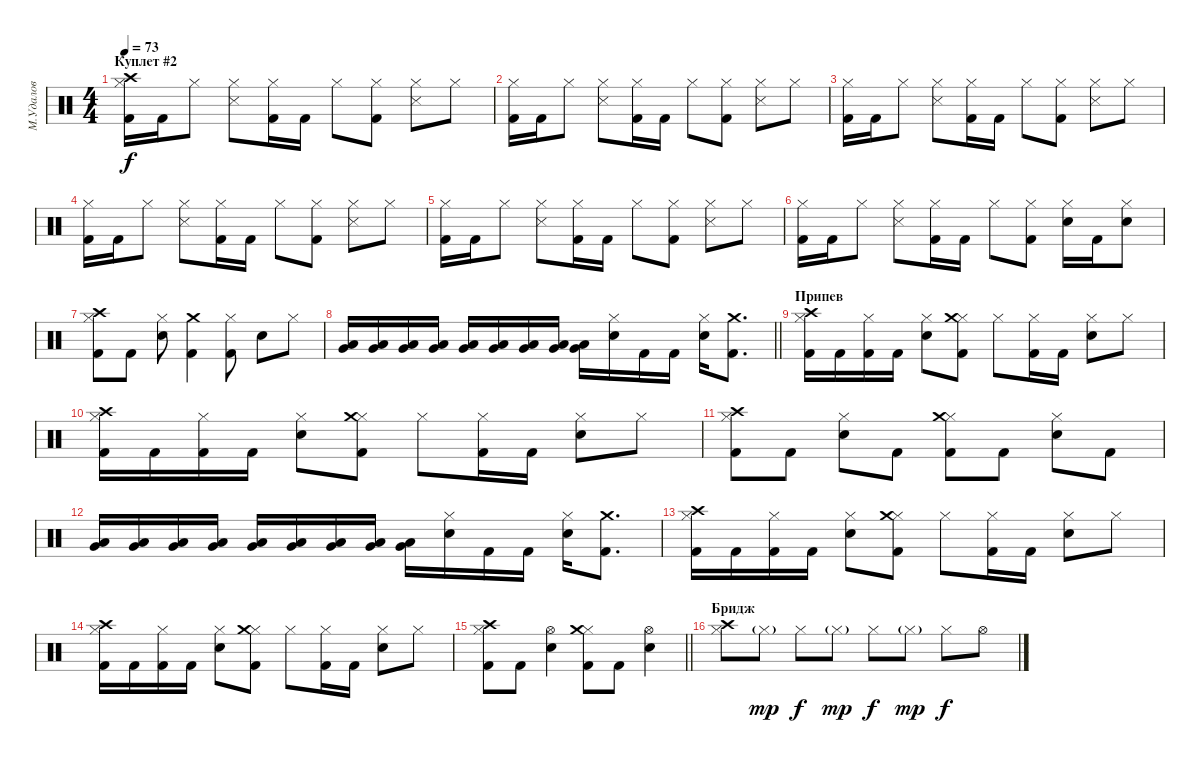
\track ("М.Удалов" "М.Удалов") {instrument percussion}
\staff {score}
\articulation defaults
\ts (4 4)
\section ("" "Куплет #2")
\tempo 73
\clef neutral
\ks c
("Kick (hit) 2" "Hi-Hat (closed)" "Crash high (hit)").16{dy f} "Kick (hit) 2".16 "Hi-Hat (closed)".8 ("Snare (side stick) 3" "Hi-Hat (closed)").8 ("Kick (hit) 2" "Hi-Hat (closed)").16 "Kick (hit) 2".16 "Hi-Hat (closed)".8 ("Kick (hit) 2" "Hi-Hat (closed)").8 ("Snare (side stick) 3" "Hi-Hat (closed)").8 "Hi-Hat (closed)".8 |
("Kick (hit) 2" "Hi-Hat (closed)").16 "Kick (hit) 2".16 "Hi-Hat (closed)".8 ("Snare (side stick) 3" "Hi-Hat (closed)").8 ("Kick (hit) 2" "Hi-Hat (closed)").16 "Kick (hit) 2".16 "Hi-Hat (closed)".8 ("Kick (hit) 2" "Hi-Hat (closed)").8 ("Snare (side stick) 3" "Hi-Hat (closed)").8 "Hi-Hat (closed)".8 |
("Kick (hit) 2" "Hi-Hat (closed)").16 "Kick (hit) 2".16 "Hi-Hat (closed)".8 ("Snare (side stick) 3" "Hi-Hat (closed)").8 ("Kick (hit) 2" "Hi-Hat (closed)").16 "Kick (hit) 2".16 "Hi-Hat (closed)".8 ("Kick (hit) 2" "Hi-Hat (closed)").8 ("Snare (side stick) 3" "Hi-Hat (closed)").8 "Hi-Hat (closed)".8 |
("Kick (hit) 2" "Hi-Hat (closed)").16 "Kick (hit) 2".16 "Hi-Hat (closed)".8 ("Snare (side stick) 3" "Hi-Hat (closed)").8 ("Kick (hit) 2" "Hi-Hat (closed)").16 "Kick (hit) 2".16 "Hi-Hat (closed)".8 ("Kick (hit) 2" "Hi-Hat (closed)").8 ("Snare (side stick) 3" "Hi-Hat (closed)").8 "Hi-Hat (closed)".8 |
("Kick (hit) 2" "Hi-Hat (closed)").16 "Kick (hit) 2".16 "Hi-Hat (closed)".8 ("Snare (side stick) 3" "Hi-Hat (closed)").8 ("Kick (hit) 2" "Hi-Hat (closed)").16 "Kick (hit) 2".16 "Hi-Hat (closed)".8 ("Kick (hit) 2" "Hi-Hat (closed)").8 ("Snare (side stick) 3" "Hi-Hat (closed)").8 "Hi-Hat (closed)".8 |
("Kick (hit) 2" "Hi-Hat (closed)").16 "Kick (hit) 2".16 "Hi-Hat (closed)".8 ("Snare (side stick) 3" "Hi-Hat (closed)").8 ("Kick (hit) 2" "Hi-Hat (closed)").16 "Kick (hit) 2".16 "Hi-Hat (closed)".8 ("Kick (hit) 2" "Hi-Hat (closed)").8 ("Snare (hit) 2" "Hi-Hat (closed)").16 "Kick (hit) 2".16 ("Snare (hit) 2" "Hi-Hat (closed)").8 |
("Kick (hit) 2" "Hi-Hat (closed)" "Crash high (hit)").8 "Kick (hit) 2".8 ("Snare (hit) 2" "Hi-Hat (closed)").8 ("Kick (hit) 2" "Crash medium (hit)").4 ("Kick (hit) 2" "Hi-Hat (closed)").8 "Snare (hit) 2".8 "Hi-Hat (closed)".8 |
\barLineRight lightlight
("Very Low Tom (hit)" "Low Tom (hit)").16 ("Very Low Tom (hit)" "Low Tom (hit)").16 ("Very Low Tom (hit)" "Low Tom (hit)").16 ("Very Low Tom (hit)" "Low Tom (hit)").16 ("Very Low Tom (hit)" "Low Tom (hit)").16 ("Very Low Tom (hit)" "Low Tom (hit)").16 ("Very Low Tom (hit)" "Low Tom (hit)").16 ("Very Low Tom (hit)" "Low Tom (hit)").16 ("Very Low Tom (hit)" "Low Tom (hit)").16 ("Snare (hit) 2" "Hi-Hat (closed)").16 "Kick (hit) 2".16 "Kick (hit) 2".16 ("Snare (hit) 2" "Hi-Hat (closed)").16 ("Kick (hit) 2" "Crash medium (hit)").8{d} |
\section ("" "Припев")
("Kick (hit) 2" "Hi-Hat (closed)" "Crash high (hit)").16 "Kick (hit) 2".16 ("Kick (hit) 2" "Hi-Hat (closed)").16 "Kick (hit) 2".16 ("Snare (hit) 2" "Hi-Hat (closed)").8 ("Kick (hit) 2" "Hi-Hat (closed)" "Crash medium (hit)").8 "Hi-Hat (closed)".8 ("Kick (hit) 2" "Hi-Hat (closed)").16 "Kick (hit) 2".16 ("Snare (hit) 2" "Hi-Hat (closed)").8 "Hi-Hat (closed)".8 |
("Kick (hit) 2" "Hi-Hat (closed)" "Crash high (hit)").16 "Kick (hit) 2".16 ("Kick (hit) 2" "Hi-Hat (closed)").16 "Kick (hit) 2".16 ("Snare (hit) 2" "Hi-Hat (closed)").8 ("Kick (hit) 2" "Hi-Hat (closed)" "Crash medium (hit)").8 "Hi-Hat (closed)".8 ("Kick (hit) 2" "Hi-Hat (closed)").16 "Kick (hit) 2".16 ("Snare (hit) 2" "Hi-Hat (closed)").8 "Hi-Hat (closed)".8 |
("Kick (hit) 2" "Hi-Hat (closed)" "Crash high (hit)").8 "Kick (hit) 2".8 ("Snare (hit) 2" "Hi-Hat (closed)").8 "Kick (hit) 2".8 ("Kick (hit) 2" "Hi-Hat (closed)" "Crash medium (hit)").8 "Kick (hit) 2".8 ("Snare (hit) 2" "Hi-Hat (closed)").8 "Kick (hit) 2".8 |
("Very Low Tom (hit)" "Low Tom (hit)").16 ("Very Low Tom (hit)" "Low Tom (hit)").16 ("Very Low Tom (hit)" "Low Tom (hit)").16 ("Very Low Tom (hit)" "Low Tom (hit)").16 ("Very Low Tom (hit)" "Low Tom (hit)").16 ("Very Low Tom (hit)" "Low Tom (hit)").16 ("Very Low Tom (hit)" "Low Tom (hit)").16 ("Very Low Tom (hit)" "Low Tom (hit)").16 ("Very Low Tom (hit)" "Low Tom (hit)").16 ("Snare (hit) 2" "Hi-Hat (closed)").16 "Kick (hit) 2".16 "Kick (hit) 2".16 ("Snare (hit) 2" "Hi-Hat (closed)").16 ("Kick (hit) 2" "Crash medium (hit)").8{d} |
("Kick (hit) 2" "Hi-Hat (closed)" "Crash high (hit)").16 "Kick (hit) 2".16 ("Kick (hit) 2" "Hi-Hat (closed)").16 "Kick (hit) 2".16 ("Snare (hit) 2" "Hi-Hat (closed)").8 ("Kick (hit) 2" "Hi-Hat (closed)" "Crash medium (hit)").8 "Hi-Hat (closed)".8 ("Kick (hit) 2" "Hi-Hat (closed)").16 "Kick (hit) 2".16 ("Snare (hit) 2" "Hi-Hat (closed)").8 "Hi-Hat (closed)".8 |
("Kick (hit) 2" "Hi-Hat (closed)" "Crash high (hit)").16 "Kick (hit) 2".16 ("Kick (hit) 2" "Hi-Hat (closed)").16 "Kick (hit) 2".16 ("Snare (hit) 2" "Hi-Hat (closed)").8 ("Kick (hit) 2" "Hi-Hat (closed)" "Crash medium (hit)").8 "Hi-Hat (closed)".8 ("Kick (hit) 2" "Hi-Hat (closed)").16 "Kick (hit) 2".16 ("Snare (hit) 2" "Hi-Hat (closed)").8 "Hi-Hat (closed)".8 |
\barLineRight lightlight
("Kick (hit) 2" "Hi-Hat (closed)" "Crash high (hit)").8 "Kick (hit) 2".8 ("Snare (hit) 2" "Hi-Hat (open)").4 ("Kick (hit) 2" "Hi-Hat (closed)" "Crash medium (hit)").8 "Kick (hit) 2".8 ("Snare (hit) 2" "Hi-Hat (open)").4 |
\section ("" "Бридж")
("Hi-Hat (closed)" "Crash high (hit)").8 "Hi-Hat (closed)"{g}.8{dy mp} "Hi-Hat (closed)".8{dy f} "Hi-Hat (closed)"{g}.8{dy mp} "Hi-Hat (closed)".8{dy f} "Hi-Hat (closed)"{g}.8{dy mp} "Hi-Hat (closed)".8{dy f} "Hi-Hat (open)".8
